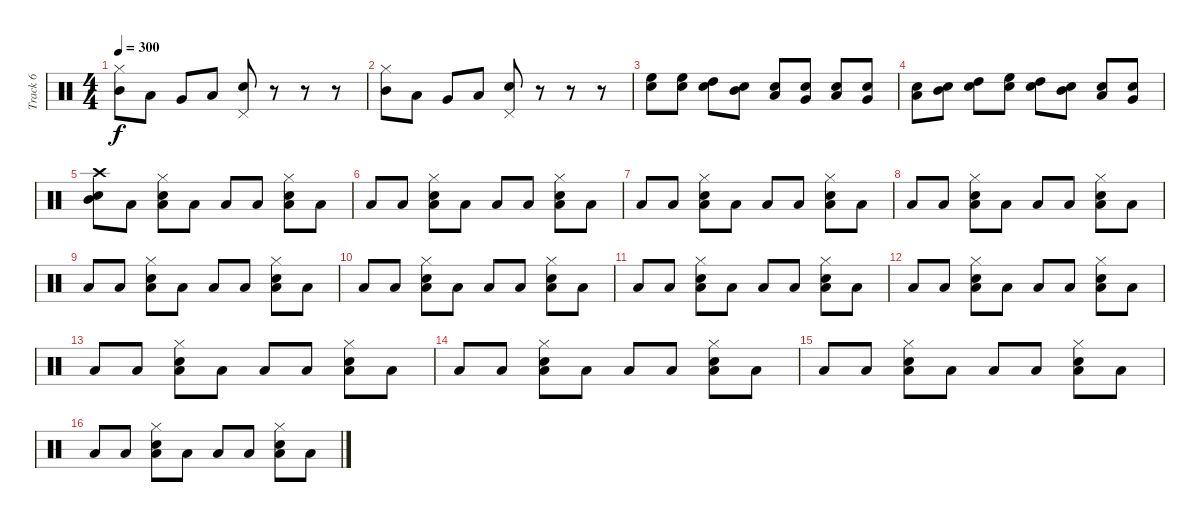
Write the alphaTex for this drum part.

\track ("Track 6" "Track 6") {instrument percussion}
\staff {score}
\articulation defaults
\ts (4 4)
\tempo 300
\clef neutral
\ks c
("Mid Tom (hit)" "Hi-Hat (closed)").8{dy f} "Low Tom (hit)".8 "Very Low Tom (hit)".8 "Low Floor Tom (hit)".8 ("Pedal Hi-Hat (hit)" "Snare (hit) 2").8 r.8 r.8 r.8 |
("Mid Tom (hit)" "Hi-Hat (closed)").8 "Low Tom (hit)".8 "Very Low Tom (hit)".8 "Low Floor Tom (hit)".8 ("Pedal Hi-Hat (hit)" "Snare (hit) 2").8 r.8 r.8 r.8 |
("High Floor Tom (hit)" "Electric Snare (hit)").8 ("High Floor Tom (hit)" "Electric Snare (hit)").8 ("High Tom (hit)" "Electric Snare (hit)").8 ("Mid Tom (hit)" "Electric Snare (hit)").8 ("Low Tom (hit)" "Electric Snare (hit)").8 ("Very Low Tom (hit)" "Electric Snare (hit)").8 ("Low Floor Tom (hit)" "Electric Snare (hit)").8 ("Very Low Tom (hit)" "Electric Snare (hit)").8 |
("Low Tom (hit)" "Electric Snare (hit)").8 ("Mid Tom (hit)" "Electric Snare (hit)").8 ("High Tom (hit)" "Electric Snare (hit)").8 ("High Floor Tom (hit)" "Electric Snare (hit)").8 ("High Tom (hit)" "Electric Snare (hit)").8 ("Mid Tom (hit)" "Electric Snare (hit)").8 ("Low Tom (hit)" "Electric Snare (hit)").8 ("Very Low Tom (hit)" "Electric Snare (hit)").8 |
("Snare (hit) 2" "Mid Tom (hit)" "Crash high (hit)").8 "Low Floor Tom (hit)".8 ("Electric Snare (hit)" "Low Tom (hit)" "Hi-Hat (closed)").8 "Low Floor Tom (hit)".8 "Low Floor Tom (hit)".8 "Low Floor Tom (hit)".8 ("Electric Snare (hit)" "Low Tom (hit)" "Hi-Hat (closed)").8 "Low Floor Tom (hit)".8 |
"Low Floor Tom (hit)".8 "Low Floor Tom (hit)".8 ("Electric Snare (hit)" "Low Tom (hit)" "Hi-Hat (closed)").8 "Low Floor Tom (hit)".8 "Low Floor Tom (hit)".8 "Low Floor Tom (hit)".8 ("Electric Snare (hit)" "Low Tom (hit)" "Hi-Hat (closed)").8 "Low Floor Tom (hit)".8 |
"Low Floor Tom (hit)".8 "Low Floor Tom (hit)".8 ("Electric Snare (hit)" "Low Tom (hit)" "Hi-Hat (closed)").8 "Low Floor Tom (hit)".8 "Low Floor Tom (hit)".8 "Low Floor Tom (hit)".8 ("Electric Snare (hit)" "Low Tom (hit)" "Hi-Hat (closed)").8 "Low Floor Tom (hit)".8 |
"Low Floor Tom (hit)".8 "Low Floor Tom (hit)".8 ("Electric Snare (hit)" "Low Tom (hit)" "Hi-Hat (closed)").8 "Low Floor Tom (hit)".8 "Low Floor Tom (hit)".8 "Low Floor Tom (hit)".8 ("Electric Snare (hit)" "Low Tom (hit)" "Hi-Hat (closed)").8 "Low Floor Tom (hit)".8 |
"Low Floor Tom (hit)".8 "Low Floor Tom (hit)".8 ("Electric Snare (hit)" "Low Tom (hit)" "Hi-Hat (closed)").8 "Low Floor Tom (hit)".8 "Low Floor Tom (hit)".8 "Low Floor Tom (hit)".8 ("Electric Snare (hit)" "Low Tom (hit)" "Hi-Hat (closed)").8 "Low Floor Tom (hit)".8 |
"Low Floor Tom (hit)".8 "Low Floor Tom (hit)".8 ("Electric Snare (hit)" "Low Tom (hit)" "Hi-Hat (closed)").8 "Low Floor Tom (hit)".8 "Low Floor Tom (hit)".8 "Low Floor Tom (hit)".8 ("Electric Snare (hit)" "Low Tom (hit)" "Hi-Hat (closed)").8 "Low Floor Tom (hit)".8 |
"Low Floor Tom (hit)".8 "Low Floor Tom (hit)".8 ("Electric Snare (hit)" "Low Tom (hit)" "Hi-Hat (closed)").8 "Low Floor Tom (hit)".8 "Low Floor Tom (hit)".8 "Low Floor Tom (hit)".8 ("Electric Snare (hit)" "Low Tom (hit)" "Hi-Hat (closed)").8 "Low Floor Tom (hit)".8 |
"Low Floor Tom (hit)".8 "Low Floor Tom (hit)".8 ("Electric Snare (hit)" "Low Tom (hit)" "Hi-Hat (closed)").8 "Low Floor Tom (hit)".8 "Low Floor Tom (hit)".8 "Low Floor Tom (hit)".8 ("Electric Snare (hit)" "Low Tom (hit)" "Hi-Hat (closed)").8 "Low Floor Tom (hit)".8 |
"Low Floor Tom (hit)".8 "Low Floor Tom (hit)".8 ("Electric Snare (hit)" "Low Tom (hit)" "Hi-Hat (closed)").8 "Low Floor Tom (hit)".8 "Low Floor Tom (hit)".8 "Low Floor Tom (hit)".8 ("Electric Snare (hit)" "Low Tom (hit)" "Hi-Hat (closed)").8 "Low Floor Tom (hit)".8 |
"Low Floor Tom (hit)".8 "Low Floor Tom (hit)".8 ("Electric Snare (hit)" "Low Tom (hit)" "Hi-Hat (closed)").8 "Low Floor Tom (hit)".8 "Low Floor Tom (hit)".8 "Low Floor Tom (hit)".8 ("Electric Snare (hit)" "Low Tom (hit)" "Hi-Hat (closed)").8 "Low Floor Tom (hit)".8 |
"Low Floor Tom (hit)".8 "Low Floor Tom (hit)".8 ("Electric Snare (hit)" "Low Tom (hit)" "Hi-Hat (closed)").8 "Low Floor Tom (hit)".8 "Low Floor Tom (hit)".8 "Low Floor Tom (hit)".8 ("Electric Snare (hit)" "Low Tom (hit)" "Hi-Hat (closed)").8 "Low Floor Tom (hit)".8 |
"Low Floor Tom (hit)".8 "Low Floor Tom (hit)".8 ("Electric Snare (hit)" "Low Tom (hit)" "Hi-Hat (closed)").8 "Low Floor Tom (hit)".8 "Low Floor Tom (hit)".8 "Low Floor Tom (hit)".8 ("Electric Snare (hit)" "Low Tom (hit)" "Hi-Hat (closed)").8 "Low Floor Tom (hit)".8
